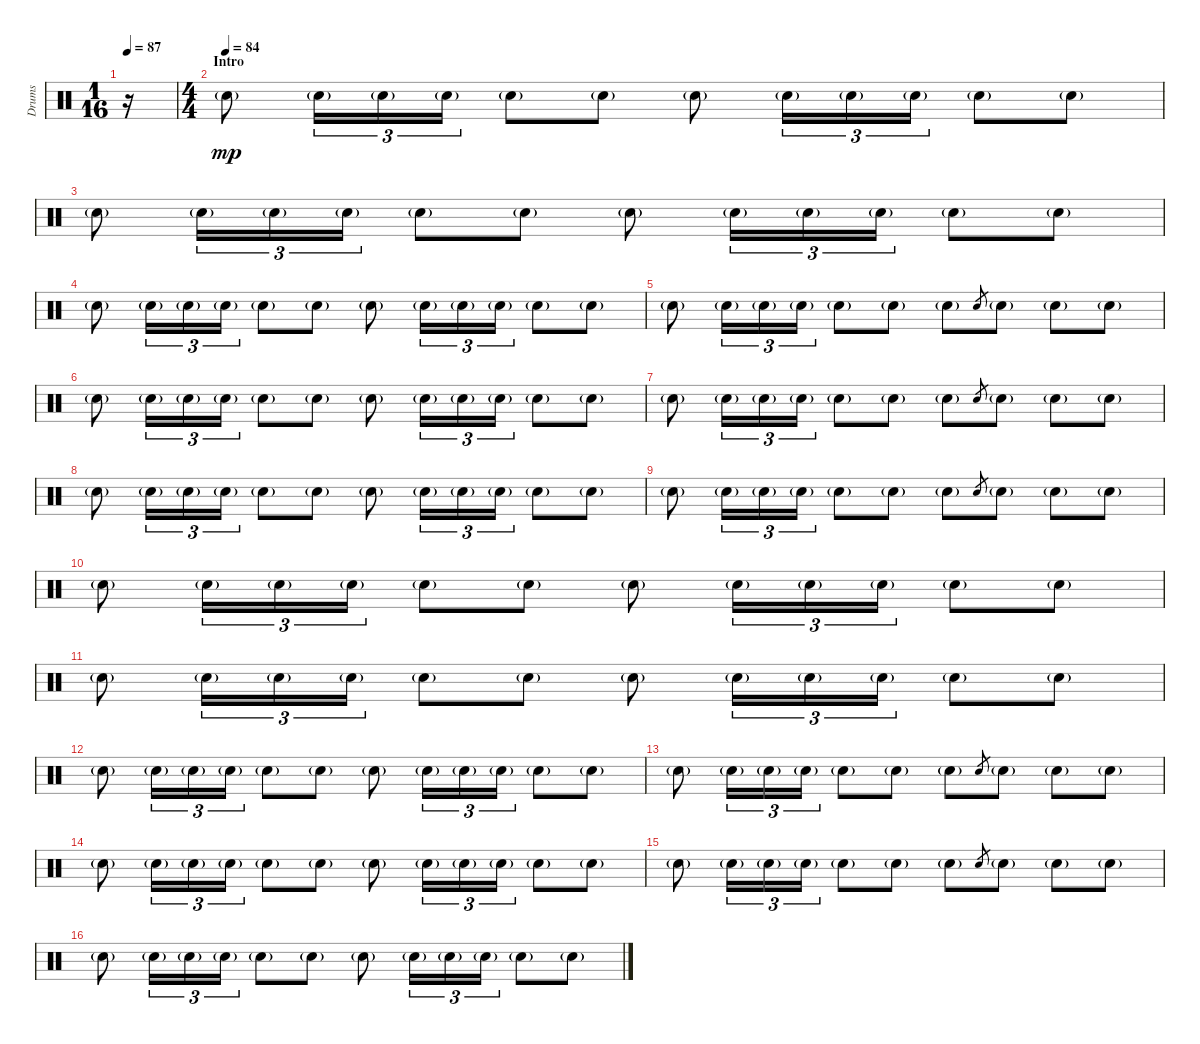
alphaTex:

\track ("Drums" "Drums") {instrument percussion}
\staff {score}
\articulation defaults
\ts (1 16)
\tempo 87
\clef neutral
\ks c
r.16{dy mp} |
\ts (4 4)
\section ("" "Intro")
\tempo (84)
"Electric Snare (hit)"{g}.8 "Electric Snare (hit)"{g}.16{tu (3 2)} "Electric Snare (hit)"{g}.16{tu (3 2)} "Electric Snare (hit)"{g}.16{tu (3 2)} "Electric Snare (hit)"{g}.8 "Electric Snare (hit)"{g}.8 "Electric Snare (hit)"{g}.8 "Electric Snare (hit)"{g}.16{tu (3 2)} "Electric Snare (hit)"{g}.16{tu (3 2)} "Electric Snare (hit)"{g}.16{tu (3 2)} "Electric Snare (hit)"{g}.8 "Electric Snare (hit)"{g}.8 |
"Electric Snare (hit)"{g}.8 "Electric Snare (hit)"{g}.16{tu (3 2)} "Electric Snare (hit)"{g}.16{tu (3 2)} "Electric Snare (hit)"{g}.16{tu (3 2)} "Electric Snare (hit)"{g}.8 "Electric Snare (hit)"{g}.8 "Electric Snare (hit)"{g}.8 "Electric Snare (hit)"{g}.16{tu (3 2)} "Electric Snare (hit)"{g}.16{tu (3 2)} "Electric Snare (hit)"{g}.16{tu (3 2)} "Electric Snare (hit)"{g}.8 "Electric Snare (hit)"{g}.8 |
"Electric Snare (hit)"{g}.8 "Electric Snare (hit)"{g}.16{tu (3 2)} "Electric Snare (hit)"{g}.16{tu (3 2)} "Electric Snare (hit)"{g}.16{tu (3 2)} "Electric Snare (hit)"{g}.8 "Electric Snare (hit)"{g}.8 "Electric Snare (hit)"{g}.8 "Electric Snare (hit)"{g}.16{tu (3 2)} "Electric Snare (hit)"{g}.16{tu (3 2)} "Electric Snare (hit)"{g}.16{tu (3 2)} "Electric Snare (hit)"{g}.8 "Electric Snare (hit)"{g}.8 |
"Electric Snare (hit)"{g}.8 "Electric Snare (hit)"{g}.16{tu (3 2)} "Electric Snare (hit)"{g}.16{tu (3 2)} "Electric Snare (hit)"{g}.16{tu (3 2)} "Electric Snare (hit)"{g}.8 "Electric Snare (hit)"{g}.8 "Electric Snare (hit)"{g}.8 "Electric Snare (hit)".8{gr} "Electric Snare (hit)"{g}.8 "Electric Snare (hit)"{g}.8 "Electric Snare (hit)"{g}.8 |
"Electric Snare (hit)"{g}.8 "Electric Snare (hit)"{g}.16{tu (3 2)} "Electric Snare (hit)"{g}.16{tu (3 2)} "Electric Snare (hit)"{g}.16{tu (3 2)} "Electric Snare (hit)"{g}.8 "Electric Snare (hit)"{g}.8 "Electric Snare (hit)"{g}.8 "Electric Snare (hit)"{g}.16{tu (3 2)} "Electric Snare (hit)"{g}.16{tu (3 2)} "Electric Snare (hit)"{g}.16{tu (3 2)} "Electric Snare (hit)"{g}.8 "Electric Snare (hit)"{g}.8 |
"Electric Snare (hit)"{g}.8 "Electric Snare (hit)"{g}.16{tu (3 2)} "Electric Snare (hit)"{g}.16{tu (3 2)} "Electric Snare (hit)"{g}.16{tu (3 2)} "Electric Snare (hit)"{g}.8 "Electric Snare (hit)"{g}.8 "Electric Snare (hit)"{g}.8 "Electric Snare (hit)".8{gr} "Electric Snare (hit)"{g}.8 "Electric Snare (hit)"{g}.8 "Electric Snare (hit)"{g}.8 |
"Electric Snare (hit)"{g}.8 "Electric Snare (hit)"{g}.16{tu (3 2)} "Electric Snare (hit)"{g}.16{tu (3 2)} "Electric Snare (hit)"{g}.16{tu (3 2)} "Electric Snare (hit)"{g}.8 "Electric Snare (hit)"{g}.8 "Electric Snare (hit)"{g}.8 "Electric Snare (hit)"{g}.16{tu (3 2)} "Electric Snare (hit)"{g}.16{tu (3 2)} "Electric Snare (hit)"{g}.16{tu (3 2)} "Electric Snare (hit)"{g}.8 "Electric Snare (hit)"{g}.8 |
"Electric Snare (hit)"{g}.8 "Electric Snare (hit)"{g}.16{tu (3 2)} "Electric Snare (hit)"{g}.16{tu (3 2)} "Electric Snare (hit)"{g}.16{tu (3 2)} "Electric Snare (hit)"{g}.8 "Electric Snare (hit)"{g}.8 "Electric Snare (hit)"{g}.8 "Electric Snare (hit)".8{gr} "Electric Snare (hit)"{g}.8 "Electric Snare (hit)"{g}.8 "Electric Snare (hit)"{g}.8 |
"Electric Snare (hit)"{g}.8 "Electric Snare (hit)"{g}.16{tu (3 2)} "Electric Snare (hit)"{g}.16{tu (3 2)} "Electric Snare (hit)"{g}.16{tu (3 2)} "Electric Snare (hit)"{g}.8 "Electric Snare (hit)"{g}.8 "Electric Snare (hit)"{g}.8 "Electric Snare (hit)"{g}.16{tu (3 2)} "Electric Snare (hit)"{g}.16{tu (3 2)} "Electric Snare (hit)"{g}.16{tu (3 2)} "Electric Snare (hit)"{g}.8 "Electric Snare (hit)"{g}.8 |
"Electric Snare (hit)"{g}.8 "Electric Snare (hit)"{g}.16{tu (3 2)} "Electric Snare (hit)"{g}.16{tu (3 2)} "Electric Snare (hit)"{g}.16{tu (3 2)} "Electric Snare (hit)"{g}.8 "Electric Snare (hit)"{g}.8 "Electric Snare (hit)"{g}.8 "Electric Snare (hit)"{g}.16{tu (3 2)} "Electric Snare (hit)"{g}.16{tu (3 2)} "Electric Snare (hit)"{g}.16{tu (3 2)} "Electric Snare (hit)"{g}.8 "Electric Snare (hit)"{g}.8 |
"Electric Snare (hit)"{g}.8 "Electric Snare (hit)"{g}.16{tu (3 2)} "Electric Snare (hit)"{g}.16{tu (3 2)} "Electric Snare (hit)"{g}.16{tu (3 2)} "Electric Snare (hit)"{g}.8 "Electric Snare (hit)"{g}.8 "Electric Snare (hit)"{g}.8 "Electric Snare (hit)"{g}.16{tu (3 2)} "Electric Snare (hit)"{g}.16{tu (3 2)} "Electric Snare (hit)"{g}.16{tu (3 2)} "Electric Snare (hit)"{g}.8 "Electric Snare (hit)"{g}.8 |
"Electric Snare (hit)"{g}.8 "Electric Snare (hit)"{g}.16{tu (3 2)} "Electric Snare (hit)"{g}.16{tu (3 2)} "Electric Snare (hit)"{g}.16{tu (3 2)} "Electric Snare (hit)"{g}.8 "Electric Snare (hit)"{g}.8 "Electric Snare (hit)"{g}.8 "Electric Snare (hit)".8{gr} "Electric Snare (hit)"{g}.8 "Electric Snare (hit)"{g}.8 "Electric Snare (hit)"{g}.8 |
"Electric Snare (hit)"{g}.8 "Electric Snare (hit)"{g}.16{tu (3 2)} "Electric Snare (hit)"{g}.16{tu (3 2)} "Electric Snare (hit)"{g}.16{tu (3 2)} "Electric Snare (hit)"{g}.8 "Electric Snare (hit)"{g}.8 "Electric Snare (hit)"{g}.8 "Electric Snare (hit)"{g}.16{tu (3 2)} "Electric Snare (hit)"{g}.16{tu (3 2)} "Electric Snare (hit)"{g}.16{tu (3 2)} "Electric Snare (hit)"{g}.8 "Electric Snare (hit)"{g}.8 |
"Electric Snare (hit)"{g}.8 "Electric Snare (hit)"{g}.16{tu (3 2)} "Electric Snare (hit)"{g}.16{tu (3 2)} "Electric Snare (hit)"{g}.16{tu (3 2)} "Electric Snare (hit)"{g}.8 "Electric Snare (hit)"{g}.8 "Electric Snare (hit)"{g}.8 "Electric Snare (hit)".8{gr} "Electric Snare (hit)"{g}.8 "Electric Snare (hit)"{g}.8 "Electric Snare (hit)"{g}.8 |
"Electric Snare (hit)"{g}.8 "Electric Snare (hit)"{g}.16{tu (3 2)} "Electric Snare (hit)"{g}.16{tu (3 2)} "Electric Snare (hit)"{g}.16{tu (3 2)} "Electric Snare (hit)"{g}.8 "Electric Snare (hit)"{g}.8 "Electric Snare (hit)"{g}.8 "Electric Snare (hit)"{g}.16{tu (3 2)} "Electric Snare (hit)"{g}.16{tu (3 2)} "Electric Snare (hit)"{g}.16{tu (3 2)} "Electric Snare (hit)"{g}.8 "Electric Snare (hit)"{g}.8
